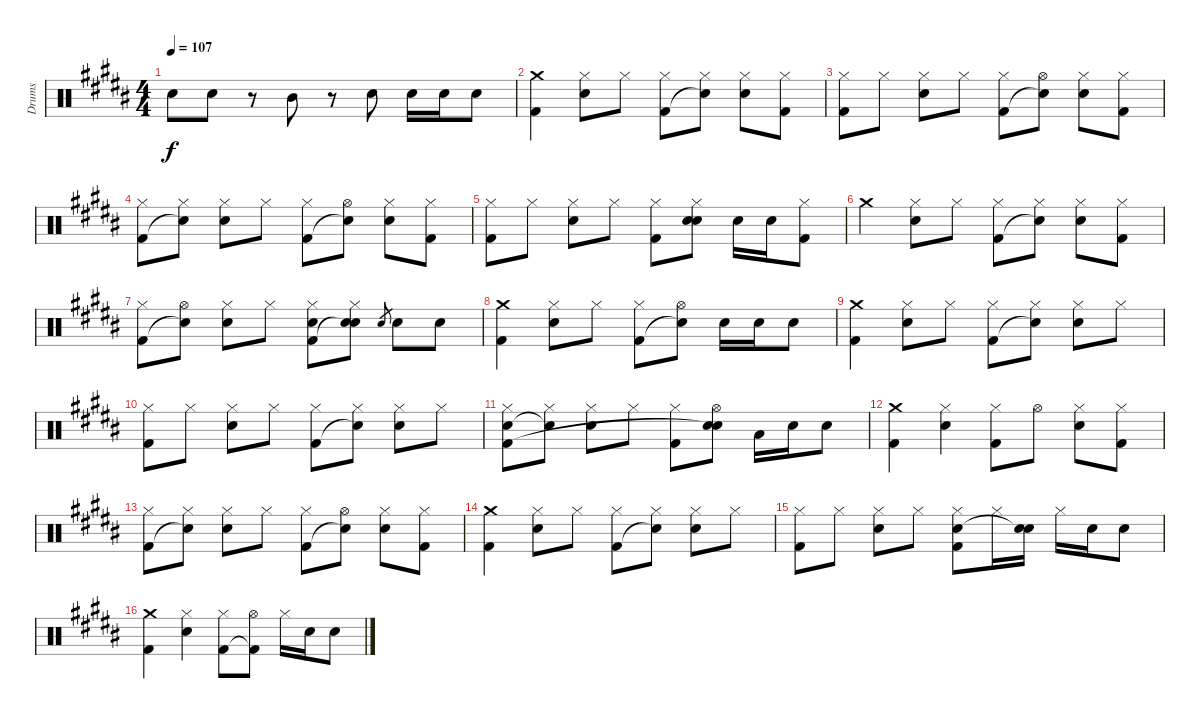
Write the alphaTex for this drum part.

\track ("Drums" "Drums") {instrument percussion}
\staff {score}
\articulation defaults
\ts (4 4)
\tempo 107
\clef neutral
\ks b "Snare (hit) 2".8{dy f} "Snare (hit) 2".8
r.8 "Mid Tom (hit)".8 r.8 "Snare (hit) 2".8 "Snare (hit) 2".16 "Snare (hit) 2".16 "Snare (hit) 2".8 |
("Crash medium (hit)" "Kick (hit) 2").4 ("Hi-Hat (closed)" "Snare (hit) 2").8 "Hi-Hat (closed)".8 ("Hi-Hat (closed)" "Kick (hit) 2").8 ("Hi-Hat (closed)" "Snare (hit)"{t}).8 ("Hi-Hat (closed)" "Snare (hit) 2").8 ("Hi-Hat (closed)" "Kick (hit) 2").8 |
("Hi-Hat (closed)" "Kick (hit) 2").8 "Hi-Hat (closed)".8 ("Hi-Hat (closed)" "Snare (hit) 2").8 "Hi-Hat (closed)".8 ("Hi-Hat (closed)" "Kick (hit) 2").8 ("Hi-Hat (open)" "Snare (hit)"{t}).8 ("Hi-Hat (closed)" "Snare (hit) 2").8 ("Hi-Hat (closed)" "Kick (hit) 2").8 |
("Hi-Hat (closed)" "Kick (hit) 2").8 ("Hi-Hat (closed)" "Snare (hit)"{t}).8 ("Hi-Hat (closed)" "Snare (hit) 2").8 "Hi-Hat (closed)".8 ("Hi-Hat (closed)" "Kick (hit) 2").8 ("Hi-Hat (open)" "Snare (hit)"{t}).8 ("Hi-Hat (closed)" "Snare (hit) 2").8 ("Hi-Hat (closed)" "Kick (hit) 2").8 |
("Hi-Hat (closed)" "Kick (hit) 2").8 "Hi-Hat (closed)".8 ("Hi-Hat (closed)" "Snare (hit) 2").8 "Hi-Hat (closed)".8 ("Hi-Hat (closed)" "Kick (hit) 2").8 ("Hi-Hat (closed)" "Snare (hit) 2" "Snare (hit)").8 "Snare (hit) 2".16 "Snare (hit) 2".16 ("Hi-Hat (closed)" "Kick (hit) 2").8 |
"Crash medium (hit)".4 ("Hi-Hat (closed)" "Snare (hit) 2").8 "Hi-Hat (closed)".8 ("Hi-Hat (closed)" "Kick (hit) 2").8 ("Hi-Hat (closed)" "Snare (hit)"{t}).8 ("Hi-Hat (closed)" "Snare (hit) 2").8 ("Hi-Hat (closed)" "Kick (hit) 2").8 |
("Hi-Hat (closed)" "Kick (hit) 2").8 ("Hi-Hat (open)" "Snare (hit)"{t}).8 ("Hi-Hat (closed)" "Snare (hit) 2").8 "Hi-Hat (closed)".8 ("Hi-Hat (closed)" "Snare (hit) 2" "Kick (hit) 2").8 ("Hi-Hat (closed)" "Snare (hit) 2" "Snare (hit)"{t}).8 "Snare (hit) 2".8{gr} "Snare (hit) 2".8 "Snare (hit) 2".8 |
("Crash medium (hit)" "Kick (hit) 2").4 ("Hi-Hat (closed)" "Snare (hit) 2").8 "Hi-Hat (closed)".8 ("Hi-Hat (closed)" "Kick (hit) 2").8 ("Hi-Hat (open)" "Snare (hit)"{t}).8 "Snare (hit) 2".16 "Snare (hit) 2".16 "Snare (hit) 2".8 |
("Crash medium (hit)" "Kick (hit) 2").4 ("Hi-Hat (closed)" "Snare (hit) 2").8 "Hi-Hat (closed)".8 ("Hi-Hat (closed)" "Kick (hit) 2").8 ("Hi-Hat (closed)" "Snare (hit)"{t}).8 ("Hi-Hat (closed)" "Snare (hit) 2").8 "Hi-Hat (closed)".8 |
("Hi-Hat (closed)" "Kick (hit) 2").8 "Hi-Hat (closed)".8 ("Hi-Hat (closed)" "Snare (hit) 2").8 "Hi-Hat (closed)".8 ("Hi-Hat (closed)" "Kick (hit) 2").8 ("Hi-Hat (closed)" "Snare (hit)"{t}).8 ("Hi-Hat (closed)" "Snare (hit) 2").8 "Hi-Hat (closed)".8 |
("Hi-Hat (closed)" "Snare (hit) 2" "Kick (hit) 2").8 ("Hi-Hat (closed)" "Snare (hit)"{t}).8 ("Hi-Hat (closed)" "Snare (hit) 2").8 "Hi-Hat (closed)".8 ("Hi-Hat (closed)" "Kick (hit) 2").8 ("Hi-Hat (open)" "Snare (hit) 2" "Snare (hit)"{t}).8 "Low Tom (hit)".16 "Snare (hit) 2".16 "Snare (hit) 2".8 |
("Crash medium (hit)" "Kick (hit) 2").4 ("Hi-Hat (closed)" "Snare (hit) 2").4 ("Hi-Hat (closed)" "Kick (hit) 2").8 "Hi-Hat (open)".8 ("Hi-Hat (closed)" "Snare (hit) 2").8 ("Hi-Hat (closed)" "Kick (hit) 2").8 |
("Hi-Hat (closed)" "Kick (hit) 2").8 ("Hi-Hat (closed)" "Snare (hit)"{t}).8 ("Hi-Hat (closed)" "Snare (hit) 2").8 "Hi-Hat (closed)".8 ("Hi-Hat (closed)" "Kick (hit) 2").8 ("Hi-Hat (open)" "Snare (hit)"{t}).8 ("Hi-Hat (closed)" "Snare (hit) 2").8 ("Hi-Hat (closed)" "Kick (hit) 2").8 |
("Crash medium (hit)" "Kick (hit) 2").4 ("Hi-Hat (closed)" "Snare (hit) 2").8 "Hi-Hat (closed)".8 ("Hi-Hat (closed)" "Kick (hit) 2").8 ("Hi-Hat (closed)" "Snare (hit)"{t}).8 ("Hi-Hat (closed)" "Snare (hit) 2").8 "Hi-Hat (closed)".8 |
("Hi-Hat (closed)" "Kick (hit) 2").8 "Hi-Hat (closed)".8 ("Hi-Hat (closed)" "Snare (hit) 2").8 "Hi-Hat (closed)".8 ("Hi-Hat (closed)" "Snare (hit) 2" "Kick (hit) 2").8 "Hi-Hat (closed)".16 ("Snare (hit) 2" "Snare (hit)"{t}).16 "Hi-Hat (closed)".16 "Snare (hit) 2".16 "Snare (hit) 2".8 |
("Crash medium (hit)" "Kick (hit) 2").4 ("Hi-Hat (closed)" "Snare (hit) 2").4 ("Hi-Hat (closed)" "Kick (hit) 2").8 ("Hi-Hat (open)" "Kick (hit) 2"{t}).8 "Hi-Hat (closed)".16 "Snare (hit) 2".16 "Snare (hit) 2".8
